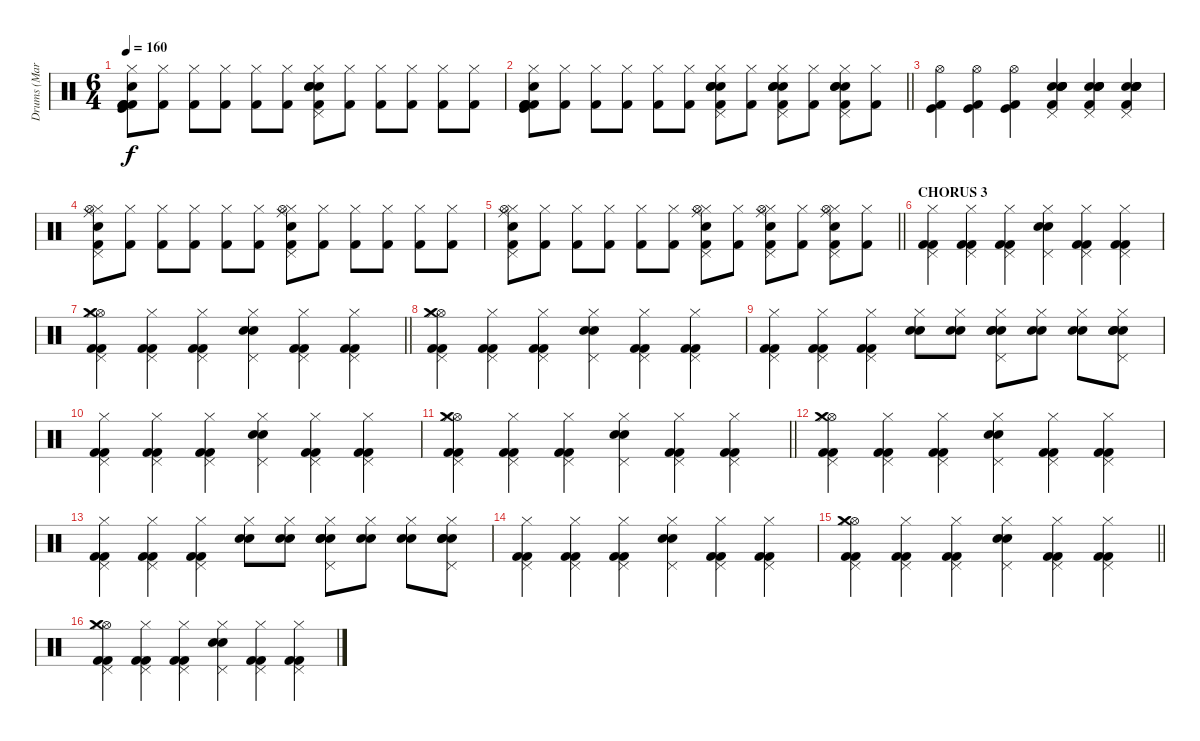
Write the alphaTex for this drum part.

\track ("Drums (Marc Allen)" "Drums (Mar") {instrument percussion}
\staff {score}
\articulation defaults
\ts (6 4)
\tempo 160
\clef neutral
\ks c
("Hi-Hat (closed)" "Kick (hit)" "Kick (hit) 2" "Kick (hit) 2" "Snare (hit) 2" "Kick (hit) 2").8{dy f} ("Hi-Hat (closed)" "Kick (hit) 2").8 ("Hi-Hat (closed)" "Kick (hit) 2").8 ("Hi-Hat (closed)" "Kick (hit) 2").8 ("Hi-Hat (closed)" "Kick (hit) 2").8 ("Hi-Hat (closed)" "Kick (hit) 2").8 ("Hi-Hat (closed)" "Pedal Hi-Hat (hit)" "Electric Snare (hit)" "Electric Snare (hit)" "Electric Snare (hit)" "Kick (hit) 2").8 ("Hi-Hat (closed)" "Kick (hit) 2").8 ("Hi-Hat (closed)" "Kick (hit) 2").8 ("Hi-Hat (closed)" "Kick (hit) 2").8 ("Hi-Hat (closed)" "Kick (hit) 2").8 ("Hi-Hat (closed)" "Kick (hit) 2").8 |
\barLineRight lightlight
("Hi-Hat (closed)" "Kick (hit)" "Kick (hit) 2" "Kick (hit) 2" "Snare (hit) 2" "Kick (hit) 2").8 ("Hi-Hat (closed)" "Kick (hit) 2").8 ("Hi-Hat (closed)" "Kick (hit) 2").8 ("Hi-Hat (closed)" "Kick (hit) 2").8 ("Hi-Hat (closed)" "Kick (hit) 2").8 ("Hi-Hat (closed)" "Kick (hit) 2").8 ("Hi-Hat (closed)" "Pedal Hi-Hat (hit)" "Electric Snare (hit)" "Electric Snare (hit)" "Electric Snare (hit)" "Kick (hit) 2").8 ("Hi-Hat (closed)" "Kick (hit) 2").8 ("Hi-Hat (closed)" "Pedal Hi-Hat (hit)" "Electric Snare (hit)" "Electric Snare (hit)" "Electric Snare (hit)" "Kick (hit) 2").8 ("Hi-Hat (closed)" "Kick (hit) 2").8 ("Hi-Hat (closed)" "Pedal Hi-Hat (hit)" "Electric Snare (hit)" "Electric Snare (hit)" "Electric Snare (hit)" "Kick (hit) 2").8 ("Hi-Hat (closed)" "Kick (hit) 2").8 |
("Kick (hit)" "Hi-Hat (open)" "Kick (hit) 2").4 ("Kick (hit)" "Hi-Hat (open)" "Kick (hit) 2").4 ("Kick (hit)" "Hi-Hat (open)" "Kick (hit) 2").4 ("Pedal Hi-Hat (hit)" "Electric Snare (hit)" "Electric Snare (hit)" "Electric Snare (hit)" "Snare (hit) 2" "Kick (hit) 2").4 ("Pedal Hi-Hat (hit)" "Electric Snare (hit)" "Electric Snare (hit)" "Electric Snare (hit)" "Snare (hit) 2" "Kick (hit) 2").4 ("Pedal Hi-Hat (hit)" "Electric Snare (hit)" "Electric Snare (hit)" "Electric Snare (hit)" "Snare (hit) 2" "Kick (hit) 2").4 |
("Hi-Hat (closed)" "Hi-Hat (open)" "Pedal Hi-Hat (hit)" "Electric Snare (hit)" "Ride (middle)" "Kick (hit) 2").8 ("Hi-Hat (closed)" "Kick (hit) 2").8 ("Hi-Hat (closed)" "Kick (hit) 2").8 ("Hi-Hat (closed)" "Kick (hit) 2").8 ("Hi-Hat (closed)" "Kick (hit) 2").8 ("Hi-Hat (closed)" "Kick (hit) 2").8 ("Hi-Hat (closed)" "Hi-Hat (open)" "Pedal Hi-Hat (hit)" "Electric Snare (hit)" "Ride (middle)" "Kick (hit) 2").8 ("Hi-Hat (closed)" "Kick (hit) 2").8 ("Hi-Hat (closed)" "Kick (hit) 2").8 ("Hi-Hat (closed)" "Kick (hit) 2").8 ("Hi-Hat (closed)" "Kick (hit) 2").8 ("Hi-Hat (closed)" "Kick (hit) 2").8 |
\barLineRight lightlight
("Hi-Hat (closed)" "Hi-Hat (open)" "Pedal Hi-Hat (hit)" "Electric Snare (hit)" "Ride (middle)" "Kick (hit) 2").8 ("Hi-Hat (closed)" "Kick (hit) 2").8 ("Hi-Hat (closed)" "Kick (hit) 2").8 ("Hi-Hat (closed)" "Kick (hit) 2").8 ("Hi-Hat (closed)" "Kick (hit) 2").8 ("Hi-Hat (closed)" "Kick (hit) 2").8 ("Hi-Hat (closed)" "Hi-Hat (open)" "Pedal Hi-Hat (hit)" "Electric Snare (hit)" "Ride (middle)" "Kick (hit) 2").8 ("Hi-Hat (closed)" "Kick (hit) 2").8 ("Hi-Hat (closed)" "Hi-Hat (open)" "Pedal Hi-Hat (hit)" "Electric Snare (hit)" "Ride (middle)" "Kick (hit) 2").8 ("Hi-Hat (closed)" "Kick (hit) 2").8 ("Hi-Hat (closed)" "Hi-Hat (open)" "Pedal Hi-Hat (hit)" "Electric Snare (hit)" "Ride (middle)" "Kick (hit) 2").8 ("Hi-Hat (closed)" "Kick (hit) 2").8 |
\section ("" "CHORUS 3")
("Pedal Hi-Hat (hit)" "Hi-Hat (closed)" "Kick (hit) 2" "Kick (hit) 2").4 ("Pedal Hi-Hat (hit)" "Hi-Hat (closed)" "Kick (hit) 2" "Kick (hit) 2").4 ("Pedal Hi-Hat (hit)" "Hi-Hat (closed)" "Kick (hit) 2" "Kick (hit) 2").4 ("Pedal Hi-Hat (hit)" "Hi-Hat (closed)" "Electric Snare (hit)" "Electric Snare (hit)").4 ("Pedal Hi-Hat (hit)" "Hi-Hat (closed)" "Kick (hit) 2" "Kick (hit) 2").4 ("Pedal Hi-Hat (hit)" "Hi-Hat (closed)" "Kick (hit) 2" "Kick (hit) 2").4 |
\barLineRight lightlight
("Pedal Hi-Hat (hit)" "Hi-Hat (open)" "Hi-Hat (closed)" "Crash medium (hit)" "Kick (hit) 2" "Kick (hit) 2").4 ("Pedal Hi-Hat (hit)" "Hi-Hat (closed)" "Kick (hit) 2" "Kick (hit) 2").4 ("Pedal Hi-Hat (hit)" "Hi-Hat (closed)" "Kick (hit) 2" "Kick (hit) 2").4 ("Pedal Hi-Hat (hit)" "Hi-Hat (closed)" "Electric Snare (hit)" "Electric Snare (hit)").4 ("Pedal Hi-Hat (hit)" "Hi-Hat (closed)" "Kick (hit) 2" "Kick (hit) 2").4 ("Pedal Hi-Hat (hit)" "Hi-Hat (closed)" "Kick (hit) 2" "Kick (hit) 2").4 |
("Pedal Hi-Hat (hit)" "Hi-Hat (open)" "Hi-Hat (closed)" "Crash medium (hit)" "Kick (hit) 2" "Kick (hit) 2").4 ("Pedal Hi-Hat (hit)" "Hi-Hat (closed)" "Kick (hit) 2" "Kick (hit) 2").4 ("Pedal Hi-Hat (hit)" "Hi-Hat (closed)" "Kick (hit) 2" "Kick (hit) 2").4 ("Pedal Hi-Hat (hit)" "Hi-Hat (closed)" "Electric Snare (hit)" "Electric Snare (hit)").4 ("Pedal Hi-Hat (hit)" "Hi-Hat (closed)" "Kick (hit) 2" "Kick (hit) 2").4 ("Pedal Hi-Hat (hit)" "Hi-Hat (closed)" "Kick (hit) 2" "Kick (hit) 2").4 |
("Pedal Hi-Hat (hit)" "Hi-Hat (closed)" "Kick (hit) 2" "Kick (hit) 2").4 ("Pedal Hi-Hat (hit)" "Hi-Hat (closed)" "Kick (hit) 2" "Kick (hit) 2").4 ("Pedal Hi-Hat (hit)" "Hi-Hat (closed)" "Kick (hit) 2" "Kick (hit) 2").4 ("Hi-Hat (closed)" "Electric Snare (hit)" "Electric Snare (hit)").8 ("Hi-Hat (closed)" "Electric Snare (hit)" "Electric Snare (hit)").8 ("Hi-Hat (closed)" "Pedal Hi-Hat (hit)" "Electric Snare (hit)" "Electric Snare (hit)" "Snare (hit) 2").8 ("Hi-Hat (closed)" "Electric Snare (hit)" "Electric Snare (hit)").8 ("Hi-Hat (closed)" "Electric Snare (hit)" "Electric Snare (hit)").8 ("Hi-Hat (closed)" "Pedal Hi-Hat (hit)" "Electric Snare (hit)" "Electric Snare (hit)" "Snare (hit) 2").8 |
("Pedal Hi-Hat (hit)" "Hi-Hat (closed)" "Kick (hit) 2" "Kick (hit) 2").4 ("Pedal Hi-Hat (hit)" "Hi-Hat (closed)" "Kick (hit) 2" "Kick (hit) 2").4 ("Pedal Hi-Hat (hit)" "Hi-Hat (closed)" "Kick (hit) 2" "Kick (hit) 2").4 ("Pedal Hi-Hat (hit)" "Hi-Hat (closed)" "Electric Snare (hit)" "Electric Snare (hit)").4 ("Pedal Hi-Hat (hit)" "Hi-Hat (closed)" "Kick (hit) 2" "Kick (hit) 2").4 ("Pedal Hi-Hat (hit)" "Hi-Hat (closed)" "Kick (hit) 2" "Kick (hit) 2").4 |
\barLineRight lightlight
("Pedal Hi-Hat (hit)" "Hi-Hat (open)" "Hi-Hat (closed)" "Crash medium (hit)" "Kick (hit) 2" "Kick (hit) 2").4 ("Pedal Hi-Hat (hit)" "Hi-Hat (closed)" "Kick (hit) 2" "Kick (hit) 2").4 ("Pedal Hi-Hat (hit)" "Hi-Hat (closed)" "Kick (hit) 2" "Kick (hit) 2").4 ("Pedal Hi-Hat (hit)" "Hi-Hat (closed)" "Electric Snare (hit)" "Electric Snare (hit)").4 ("Pedal Hi-Hat (hit)" "Hi-Hat (closed)" "Kick (hit) 2" "Kick (hit) 2").4 ("Pedal Hi-Hat (hit)" "Hi-Hat (closed)" "Kick (hit) 2" "Kick (hit) 2").4 |
("Pedal Hi-Hat (hit)" "Hi-Hat (open)" "Hi-Hat (closed)" "Crash medium (hit)" "Kick (hit) 2" "Kick (hit) 2").4 ("Pedal Hi-Hat (hit)" "Hi-Hat (closed)" "Kick (hit) 2" "Kick (hit) 2").4 ("Pedal Hi-Hat (hit)" "Hi-Hat (closed)" "Kick (hit) 2" "Kick (hit) 2").4 ("Pedal Hi-Hat (hit)" "Hi-Hat (closed)" "Electric Snare (hit)" "Electric Snare (hit)").4 ("Pedal Hi-Hat (hit)" "Hi-Hat (closed)" "Kick (hit) 2" "Kick (hit) 2").4 ("Pedal Hi-Hat (hit)" "Hi-Hat (closed)" "Kick (hit) 2" "Kick (hit) 2").4 |
("Pedal Hi-Hat (hit)" "Hi-Hat (closed)" "Kick (hit) 2" "Kick (hit) 2").4 ("Pedal Hi-Hat (hit)" "Hi-Hat (closed)" "Kick (hit) 2" "Kick (hit) 2").4 ("Pedal Hi-Hat (hit)" "Hi-Hat (closed)" "Kick (hit) 2" "Kick (hit) 2").4 ("Hi-Hat (closed)" "Electric Snare (hit)" "Electric Snare (hit)").8 ("Hi-Hat (closed)" "Electric Snare (hit)" "Electric Snare (hit)").8 ("Hi-Hat (closed)" "Pedal Hi-Hat (hit)" "Electric Snare (hit)" "Electric Snare (hit)" "Snare (hit) 2").8 ("Hi-Hat (closed)" "Electric Snare (hit)" "Electric Snare (hit)").8 ("Hi-Hat (closed)" "Electric Snare (hit)" "Electric Snare (hit)").8 ("Hi-Hat (closed)" "Pedal Hi-Hat (hit)" "Electric Snare (hit)" "Electric Snare (hit)" "Snare (hit) 2").8 |
("Pedal Hi-Hat (hit)" "Hi-Hat (closed)" "Kick (hit) 2" "Kick (hit) 2").4 ("Pedal Hi-Hat (hit)" "Hi-Hat (closed)" "Kick (hit) 2" "Kick (hit) 2").4 ("Pedal Hi-Hat (hit)" "Hi-Hat (closed)" "Kick (hit) 2" "Kick (hit) 2").4 ("Pedal Hi-Hat (hit)" "Hi-Hat (closed)" "Electric Snare (hit)" "Electric Snare (hit)").4 ("Pedal Hi-Hat (hit)" "Hi-Hat (closed)" "Kick (hit) 2" "Kick (hit) 2").4 ("Pedal Hi-Hat (hit)" "Hi-Hat (closed)" "Kick (hit) 2" "Kick (hit) 2").4 |
\barLineRight lightlight
("Pedal Hi-Hat (hit)" "Hi-Hat (open)" "Hi-Hat (closed)" "Crash medium (hit)" "Kick (hit) 2" "Kick (hit) 2").4 ("Pedal Hi-Hat (hit)" "Hi-Hat (closed)" "Kick (hit) 2" "Kick (hit) 2").4 ("Pedal Hi-Hat (hit)" "Hi-Hat (closed)" "Kick (hit) 2" "Kick (hit) 2").4 ("Pedal Hi-Hat (hit)" "Hi-Hat (closed)" "Electric Snare (hit)" "Electric Snare (hit)").4 ("Pedal Hi-Hat (hit)" "Hi-Hat (closed)" "Kick (hit) 2" "Kick (hit) 2").4 ("Pedal Hi-Hat (hit)" "Hi-Hat (closed)" "Kick (hit) 2" "Kick (hit) 2").4 |
("Pedal Hi-Hat (hit)" "Hi-Hat (open)" "Hi-Hat (closed)" "Crash medium (hit)" "Kick (hit) 2" "Kick (hit) 2").4 ("Pedal Hi-Hat (hit)" "Hi-Hat (closed)" "Kick (hit) 2" "Kick (hit) 2").4 ("Pedal Hi-Hat (hit)" "Hi-Hat (closed)" "Kick (hit) 2" "Kick (hit) 2").4 ("Pedal Hi-Hat (hit)" "Hi-Hat (closed)" "Electric Snare (hit)" "Electric Snare (hit)").4 ("Pedal Hi-Hat (hit)" "Hi-Hat (closed)" "Kick (hit) 2" "Kick (hit) 2").4 ("Pedal Hi-Hat (hit)" "Hi-Hat (closed)" "Kick (hit) 2" "Kick (hit) 2").4
